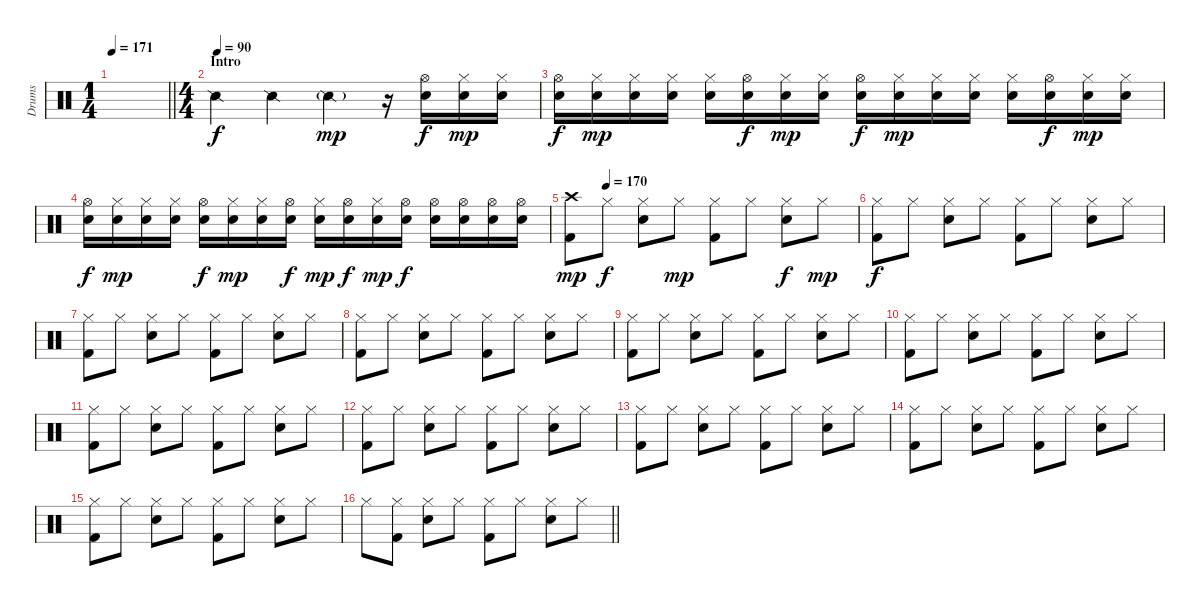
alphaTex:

\track ("Drums" "Drums") {instrument percussion}
\staff {score}
\articulation defaults
\ts (1 4)
\tempo 171
\clef neutral
\barLineRight lightlight
\ks c
|
\ts (4 4)
\section ("" "Intro")
\tempo (90)
"Snare (side stick) 2".4 "Snare (side stick) 2".4 "Snare (side stick) 2"{g}.4{dy mp} r.16 ("Hi-Hat (open)" "Snare (hit) 2").16{dy f} ("Hi-Hat (closed)" "Snare (hit) 2").16{dy mp} ("Hi-Hat (closed)" "Snare (hit) 2").16 |
("Hi-Hat (open)" "Snare (hit) 2").16{dy f} ("Hi-Hat (closed)" "Snare (hit) 2").16{dy mp} ("Hi-Hat (closed)" "Snare (hit) 2").16 ("Hi-Hat (closed)" "Snare (hit) 2").16 ("Hi-Hat (closed)" "Snare (hit) 2").16 ("Hi-Hat (open)" "Snare (hit) 2").16{dy f} ("Hi-Hat (closed)" "Snare (hit) 2").16{dy mp} ("Hi-Hat (closed)" "Snare (hit) 2").16 ("Hi-Hat (open)" "Snare (hit) 2").16{dy f} ("Hi-Hat (closed)" "Snare (hit) 2").16{dy mp} ("Hi-Hat (closed)" "Snare (hit) 2").16 ("Hi-Hat (closed)" "Snare (hit) 2").16 ("Hi-Hat (closed)" "Snare (hit) 2").16 ("Hi-Hat (open)" "Snare (hit) 2").16{dy f} ("Hi-Hat (closed)" "Snare (hit) 2").16{dy mp} ("Hi-Hat (closed)" "Snare (hit) 2").16 |
("Hi-Hat (open)" "Snare (hit) 2").16{dy f} ("Hi-Hat (closed)" "Snare (hit) 2").16{dy mp} ("Hi-Hat (closed)" "Snare (hit) 2").16 ("Hi-Hat (closed)" "Snare (hit) 2").16 ("Hi-Hat (open)" "Snare (hit) 2").16{dy f} ("Hi-Hat (closed)" "Snare (hit) 2").16{dy mp} ("Hi-Hat (closed)" "Snare (hit) 2").16 ("Hi-Hat (open)" "Snare (hit) 2").16{dy f} ("Hi-Hat (closed)" "Snare (hit) 2").16{dy mp} ("Hi-Hat (open)" "Snare (hit) 2").16{dy f} ("Hi-Hat (closed)" "Snare (hit) 2").16{dy mp} ("Hi-Hat (open)" "Snare (hit) 2").16{dy f} ("Hi-Hat (open)" "Snare (hit) 2").16 ("Hi-Hat (open)" "Snare (hit) 2").16 ("Hi-Hat (open)" "Snare (hit) 2").16 ("Hi-Hat (open)" "Snare (hit) 2").16 |
\tempo (170 0.125)
("Crash high (hit)" "Kick (hit) 2").8{dy mp} "Hi-Hat (closed)".8{dy f} ("Hi-Hat (closed)" "Snare (hit) 2").8 "Hi-Hat (closed)".8{dy mp} ("Hi-Hat (closed)" "Kick (hit) 2").8 "Hi-Hat (closed)".8 ("Hi-Hat (closed)" "Snare (hit) 2").8{dy f} "Hi-Hat (closed)".8{dy mp} |
("Hi-Hat (closed)" "Kick (hit) 2").8{dy f} "Hi-Hat (closed)".8 ("Hi-Hat (closed)" "Snare (hit) 2").8 "Hi-Hat (closed)".8 ("Hi-Hat (closed)" "Kick (hit) 2").8 "Hi-Hat (closed)".8 ("Hi-Hat (closed)" "Snare (hit) 2").8 "Hi-Hat (closed)".8 |
("Hi-Hat (closed)" "Kick (hit) 2").8 "Hi-Hat (closed)".8 ("Hi-Hat (closed)" "Snare (hit) 2").8 "Hi-Hat (closed)".8 ("Hi-Hat (closed)" "Kick (hit) 2").8 "Hi-Hat (closed)".8 ("Hi-Hat (closed)" "Snare (hit) 2").8 "Hi-Hat (closed)".8 |
("Hi-Hat (closed)" "Kick (hit) 2").8 "Hi-Hat (closed)".8 ("Hi-Hat (closed)" "Snare (hit) 2").8 "Hi-Hat (closed)".8 ("Hi-Hat (closed)" "Kick (hit) 2").8 "Hi-Hat (closed)".8 ("Hi-Hat (closed)" "Snare (hit) 2").8 "Hi-Hat (closed)".8 |
("Hi-Hat (closed)" "Kick (hit) 2").8 "Hi-Hat (closed)".8 ("Hi-Hat (closed)" "Snare (hit) 2").8 "Hi-Hat (closed)".8 ("Hi-Hat (closed)" "Kick (hit) 2").8 "Hi-Hat (closed)".8 ("Hi-Hat (closed)" "Snare (hit) 2").8 "Hi-Hat (closed)".8 |
("Hi-Hat (closed)" "Kick (hit) 2").8 "Hi-Hat (closed)".8 ("Hi-Hat (closed)" "Snare (hit) 2").8 "Hi-Hat (closed)".8 ("Hi-Hat (closed)" "Kick (hit) 2").8 "Hi-Hat (closed)".8 ("Hi-Hat (closed)" "Snare (hit) 2").8 "Hi-Hat (closed)".8 |
("Hi-Hat (closed)" "Kick (hit) 2").8 "Hi-Hat (closed)".8 ("Hi-Hat (closed)" "Snare (hit) 2").8 "Hi-Hat (closed)".8 ("Hi-Hat (closed)" "Kick (hit) 2").8 "Hi-Hat (closed)".8 ("Hi-Hat (closed)" "Snare (hit) 2").8 "Hi-Hat (closed)".8 |
("Hi-Hat (closed)" "Kick (hit) 2").8 "Hi-Hat (closed)".8 ("Hi-Hat (closed)" "Snare (hit) 2").8 "Hi-Hat (closed)".8 ("Hi-Hat (closed)" "Kick (hit) 2").8 "Hi-Hat (closed)".8 ("Hi-Hat (closed)" "Snare (hit) 2").8 "Hi-Hat (closed)".8 |
("Hi-Hat (closed)" "Kick (hit) 2").8 "Hi-Hat (closed)".8 ("Hi-Hat (closed)" "Snare (hit) 2").8 "Hi-Hat (closed)".8 ("Hi-Hat (closed)" "Kick (hit) 2").8 "Hi-Hat (closed)".8 ("Hi-Hat (closed)" "Snare (hit) 2").8 "Hi-Hat (closed)".8 |
("Hi-Hat (closed)" "Kick (hit) 2").8 "Hi-Hat (closed)".8 ("Hi-Hat (closed)" "Snare (hit) 2").8 "Hi-Hat (closed)".8 ("Hi-Hat (closed)" "Kick (hit) 2").8 "Hi-Hat (closed)".8 ("Hi-Hat (closed)" "Snare (hit) 2").8 "Hi-Hat (closed)".8 |
("Hi-Hat (closed)" "Kick (hit) 2").8 "Hi-Hat (closed)".8 ("Hi-Hat (closed)" "Snare (hit) 2").8 "Hi-Hat (closed)".8 ("Hi-Hat (closed)" "Kick (hit) 2").8 "Hi-Hat (closed)".8 ("Hi-Hat (closed)" "Snare (hit) 2").8 "Hi-Hat (closed)".8 |
\barLineRight lightlight "Hi-Hat (closed)".8
("Hi-Hat (closed)" "Kick (hit) 2").8 ("Hi-Hat (closed)" "Snare (hit) 2").8 "Hi-Hat (closed)".8 ("Hi-Hat (closed)" "Kick (hit) 2").8 "Hi-Hat (closed)".8 ("Hi-Hat (closed)" "Snare (hit) 2").8 "Hi-Hat (closed)".8
